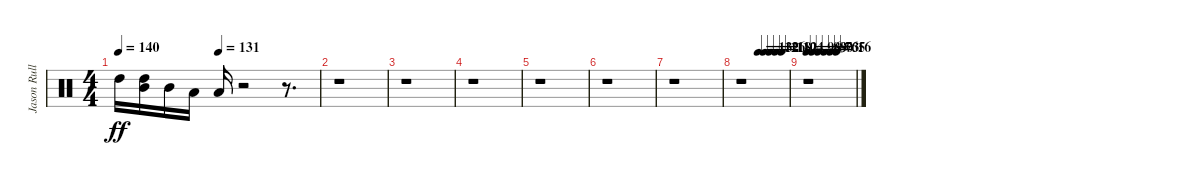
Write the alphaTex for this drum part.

\track ("Jason Rullo" "Jason Rull") {instrument percussion}
\staff {score}
\articulation defaults
\ts (4 4)
\tempo 140
\tempo (131 0.5)
\clef neutral
\ks c "High Tom (hit)".16{dy ff}
("Mid Tom (hit)" "High Tom (hit)").16 "Mid Tom (hit)".16 "Low Tom (hit)".16 "Low Floor Tom (hit)".16 r.2 r.8{d} |
r.1 |
r.1 |
r.1 |
r.1 |
r.1 |
r.1 |
\tempo (132 0.375)
\tempo (126 0.5)
\tempo (118 0.625)
\tempo (112 0.75)
\tempo (104 0.875)
r.1 |
\tempo 96
\tempo (89 0.125)
\tempo (80 0.25)
\tempo (73 0.375)
\tempo (65 0.5)
\tempo (16 0.625)
r.1
